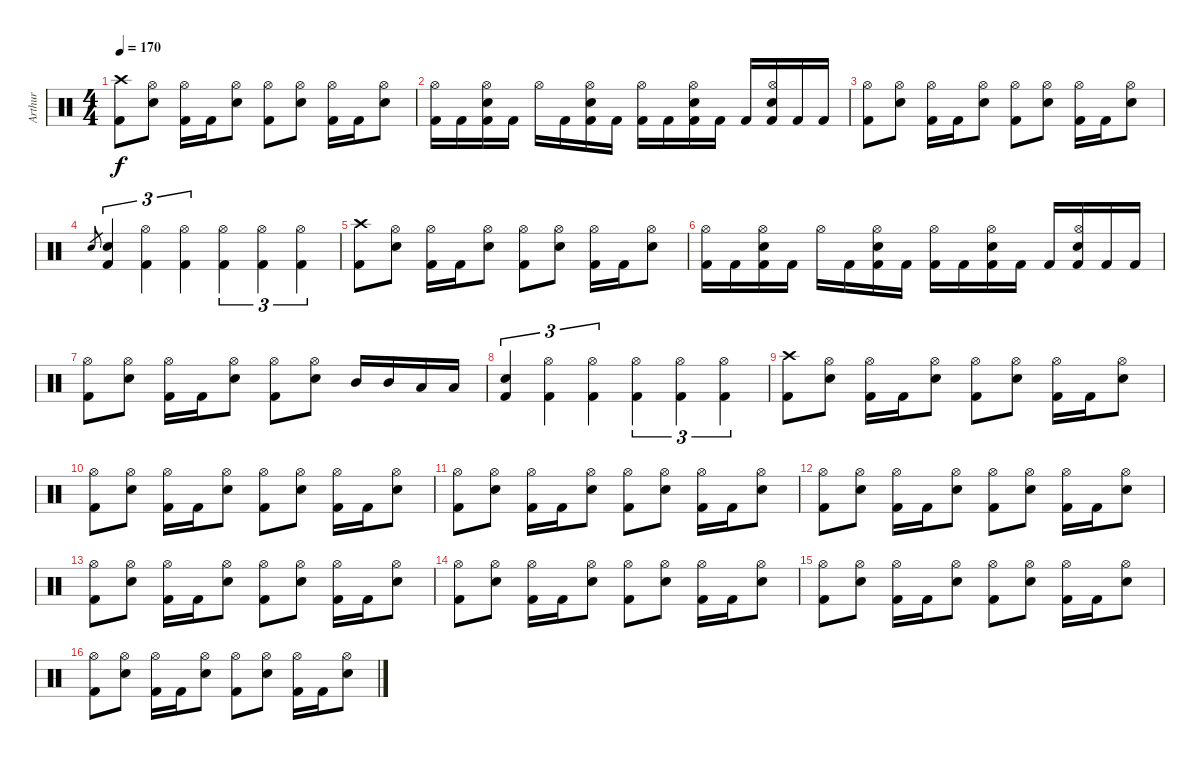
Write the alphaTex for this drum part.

\track ("Arthur" "Arthur") {instrument percussion}
\staff {score}
\articulation defaults
\ts (4 4)
\tempo 170
\clef neutral
\ks c
("Crash high (hit)" "Kick (hit) 2").8{dy f} ("Hi-Hat (open)" "Electric Snare (hit)").8 ("Hi-Hat (open)" "Kick (hit) 2").16 "Kick (hit) 2".16 ("Hi-Hat (open)" "Electric Snare (hit)").8 ("Hi-Hat (open)" "Kick (hit) 2").8 ("Hi-Hat (open)" "Electric Snare (hit)").8 ("Hi-Hat (open)" "Kick (hit) 2").16 "Kick (hit) 2".16 ("Hi-Hat (open)" "Electric Snare (hit)").8 |
("Hi-Hat (open)" "Kick (hit) 2").16 "Kick (hit) 2".16 ("Hi-Hat (open)" "Electric Snare (hit)" "Kick (hit) 2").16 "Kick (hit) 2".16 "Hi-Hat (open)".16 "Kick (hit) 2".16 ("Hi-Hat (open)" "Electric Snare (hit)" "Kick (hit) 2").16 "Kick (hit) 2".16 ("Hi-Hat (open)" "Kick (hit) 2").16 "Kick (hit) 2".16 ("Hi-Hat (open)" "Electric Snare (hit)" "Kick (hit) 2").16 "Kick (hit) 2".16 "Kick (hit) 2".16 ("Hi-Hat (open)" "Electric Snare (hit)" "Kick (hit) 2").16 "Kick (hit) 2".16 "Kick (hit) 2".16 |
("Hi-Hat (open)" "Kick (hit) 2").8 ("Hi-Hat (open)" "Electric Snare (hit)").8 ("Hi-Hat (open)" "Kick (hit) 2").16 "Kick (hit) 2".16 ("Hi-Hat (open)" "Electric Snare (hit)").8 ("Hi-Hat (open)" "Kick (hit) 2").8 ("Hi-Hat (open)" "Electric Snare (hit)").8 ("Hi-Hat (open)" "Kick (hit) 2").16 "Kick (hit) 2".16 ("Hi-Hat (open)" "Electric Snare (hit)").8 |
"Electric Snare (hit)".8{gr} ("Electric Snare (hit)" "Kick (hit) 2").4{tu (3 2)} ("Hi-Hat (open)" "Kick (hit) 2").4{tu (3 2)} ("Hi-Hat (open)" "Kick (hit) 2").4{tu (3 2)} ("Hi-Hat (open)" "Kick (hit) 2").4{tu (3 2)} ("Hi-Hat (open)" "Kick (hit) 2").4{tu (3 2)} ("Hi-Hat (open)" "Kick (hit) 2").4{tu (3 2)} |
("Crash high (hit)" "Kick (hit) 2").8 ("Hi-Hat (open)" "Electric Snare (hit)").8 ("Hi-Hat (open)" "Kick (hit) 2").16 "Kick (hit) 2".16 ("Hi-Hat (open)" "Electric Snare (hit)").8 ("Hi-Hat (open)" "Kick (hit) 2").8 ("Hi-Hat (open)" "Electric Snare (hit)").8 ("Hi-Hat (open)" "Kick (hit) 2").16 "Kick (hit) 2".16 ("Hi-Hat (open)" "Electric Snare (hit)").8 |
("Hi-Hat (open)" "Kick (hit) 2").16 "Kick (hit) 2".16 ("Hi-Hat (open)" "Electric Snare (hit)" "Kick (hit) 2").16 "Kick (hit) 2".16 "Hi-Hat (open)".16 "Kick (hit) 2".16 ("Hi-Hat (open)" "Electric Snare (hit)" "Kick (hit) 2").16 "Kick (hit) 2".16 ("Hi-Hat (open)" "Kick (hit) 2").16 "Kick (hit) 2".16 ("Hi-Hat (open)" "Electric Snare (hit)" "Kick (hit) 2").16 "Kick (hit) 2".16 "Kick (hit) 2".16 ("Hi-Hat (open)" "Electric Snare (hit)" "Kick (hit) 2").16 "Kick (hit) 2".16 "Kick (hit) 2".16 |
("Hi-Hat (open)" "Kick (hit) 2").8 ("Hi-Hat (open)" "Electric Snare (hit)").8 ("Hi-Hat (open)" "Kick (hit) 2").16 "Kick (hit) 2".16 ("Hi-Hat (open)" "Electric Snare (hit)").8 ("Hi-Hat (open)" "Kick (hit) 2").8 ("Hi-Hat (open)" "Electric Snare (hit)").8 "Mid Tom (hit)".16 "Mid Tom (hit)".16 "Low Tom (hit)".16 "Low Tom (hit)".16 |
("Electric Snare (hit)" "Kick (hit) 2").4{tu (3 2)} ("Hi-Hat (open)" "Kick (hit) 2").4{tu (3 2)} ("Hi-Hat (open)" "Kick (hit) 2").4{tu (3 2)} ("Hi-Hat (open)" "Kick (hit) 2").4{tu (3 2)} ("Hi-Hat (open)" "Kick (hit) 2").4{tu (3 2)} ("Hi-Hat (open)" "Kick (hit) 2").4{tu (3 2)} |
("Crash high (hit)" "Kick (hit) 2").8 ("Hi-Hat (open)" "Electric Snare (hit)").8 ("Hi-Hat (open)" "Kick (hit) 2").16 "Kick (hit) 2".16 ("Hi-Hat (open)" "Electric Snare (hit)").8 ("Hi-Hat (open)" "Kick (hit) 2").8 ("Hi-Hat (open)" "Electric Snare (hit)").8 ("Hi-Hat (open)" "Kick (hit) 2").16 "Kick (hit) 2".16 ("Hi-Hat (open)" "Electric Snare (hit)").8 |
("Hi-Hat (open)" "Kick (hit) 2").8 ("Hi-Hat (open)" "Electric Snare (hit)").8 ("Hi-Hat (open)" "Kick (hit) 2").16 "Kick (hit) 2".16 ("Hi-Hat (open)" "Electric Snare (hit)").8 ("Hi-Hat (open)" "Kick (hit) 2").8 ("Hi-Hat (open)" "Electric Snare (hit)").8 ("Hi-Hat (open)" "Kick (hit) 2").16 "Kick (hit) 2".16 ("Hi-Hat (open)" "Electric Snare (hit)").8 |
("Hi-Hat (open)" "Kick (hit) 2").8 ("Hi-Hat (open)" "Electric Snare (hit)").8 ("Hi-Hat (open)" "Kick (hit) 2").16 "Kick (hit) 2".16 ("Hi-Hat (open)" "Electric Snare (hit)").8 ("Hi-Hat (open)" "Kick (hit) 2").8 ("Hi-Hat (open)" "Electric Snare (hit)").8 ("Hi-Hat (open)" "Kick (hit) 2").16 "Kick (hit) 2".16 ("Hi-Hat (open)" "Electric Snare (hit)").8 |
("Hi-Hat (open)" "Kick (hit) 2").8 ("Hi-Hat (open)" "Electric Snare (hit)").8 ("Hi-Hat (open)" "Kick (hit) 2").16 "Kick (hit) 2".16 ("Hi-Hat (open)" "Electric Snare (hit)").8 ("Hi-Hat (open)" "Kick (hit) 2").8 ("Hi-Hat (open)" "Electric Snare (hit)").8 ("Hi-Hat (open)" "Kick (hit) 2").16 "Kick (hit) 2".16 ("Hi-Hat (open)" "Electric Snare (hit)").8 |
("Hi-Hat (open)" "Kick (hit) 2").8 ("Hi-Hat (open)" "Electric Snare (hit)").8 ("Hi-Hat (open)" "Kick (hit) 2").16 "Kick (hit) 2".16 ("Hi-Hat (open)" "Electric Snare (hit)").8 ("Hi-Hat (open)" "Kick (hit) 2").8 ("Hi-Hat (open)" "Electric Snare (hit)").8 ("Hi-Hat (open)" "Kick (hit) 2").16 "Kick (hit) 2".16 ("Hi-Hat (open)" "Electric Snare (hit)").8 |
("Hi-Hat (open)" "Kick (hit) 2").8 ("Hi-Hat (open)" "Electric Snare (hit)").8 ("Hi-Hat (open)" "Kick (hit) 2").16 "Kick (hit) 2".16 ("Hi-Hat (open)" "Electric Snare (hit)").8 ("Hi-Hat (open)" "Kick (hit) 2").8 ("Hi-Hat (open)" "Electric Snare (hit)").8 ("Hi-Hat (open)" "Kick (hit) 2").16 "Kick (hit) 2".16 ("Hi-Hat (open)" "Electric Snare (hit)").8 |
("Hi-Hat (open)" "Kick (hit) 2").8 ("Hi-Hat (open)" "Electric Snare (hit)").8 ("Hi-Hat (open)" "Kick (hit) 2").16 "Kick (hit) 2".16 ("Hi-Hat (open)" "Electric Snare (hit)").8 ("Hi-Hat (open)" "Kick (hit) 2").8 ("Hi-Hat (open)" "Electric Snare (hit)").8 ("Hi-Hat (open)" "Kick (hit) 2").16 "Kick (hit) 2".16 ("Hi-Hat (open)" "Electric Snare (hit)").8 |
("Hi-Hat (open)" "Kick (hit) 2").8 ("Hi-Hat (open)" "Electric Snare (hit)").8 ("Hi-Hat (open)" "Kick (hit) 2").16 "Kick (hit) 2".16 ("Hi-Hat (open)" "Electric Snare (hit)").8 ("Hi-Hat (open)" "Kick (hit) 2").8 ("Hi-Hat (open)" "Electric Snare (hit)").8 ("Hi-Hat (open)" "Kick (hit) 2").16 "Kick (hit) 2".16 ("Hi-Hat (open)" "Electric Snare (hit)").8
